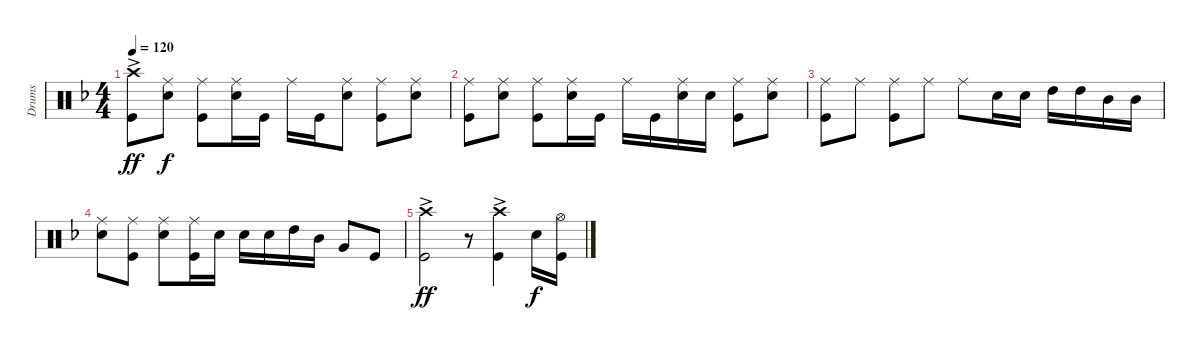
\track ("Drums" "Drums") {instrument percussion}
\staff {score}
\articulation defaults
\ts (4 4)
\tempo 120
\clef neutral
\ks f
("Crash high (hit)"{ac} "Kick (hit)").8{dy ff} ("Ride (middle)" "Snare (hit) 2").8{dy f} ("Ride (middle)" "Kick (hit)").8 ("Ride (middle)" "Snare (hit) 2").16 "Kick (hit)".16 "Ride (middle)".16 "Kick (hit)".16 ("Ride (middle)" "Snare (hit) 2").8 ("Ride (middle)" "Kick (hit)").8 ("Ride (middle)" "Snare (hit) 2").8 |
("Ride (middle)" "Kick (hit)").8 ("Ride (middle)" "Snare (hit) 2").8 ("Ride (middle)" "Kick (hit)").8 ("Ride (middle)" "Snare (hit) 2").16 "Kick (hit)".16 "Ride (middle)".16 "Kick (hit)".16 ("Ride (middle)" "Snare (hit) 2").16 "Snare (hit) 2".16 ("Ride (middle)" "Kick (hit)").8 ("Ride (middle)" "Snare (hit) 2").8 |
("Ride (middle)" "Kick (hit)").8 "Ride (middle)".8 ("Ride (middle)" "Kick (hit)").8 "Ride (middle)".8 "Ride (middle)".8 "Snare (hit) 2".16 "Snare (hit) 2".16 "High Tom (hit)".16 "High Tom (hit)".16 "Mid Tom (hit)".16 "Mid Tom (hit)".16 |
("Ride (middle)" "Snare (hit) 2").8 ("Ride (middle)" "Kick (hit)").8 ("Ride (middle)" "Snare (hit) 2").8 ("Ride (middle)" "Kick (hit)").16 "Snare (hit) 2".16 "Snare (hit) 2".16 "Snare (hit) 2".16 "High Tom (hit)".16 "Mid Tom (hit)".16 "Very Low Tom (hit)".8 "Kick (hit)".8 |
("Kick (hit)" "Crash high (hit)"{ac}).2{dy ff} r.8 ("Crash high (hit)"{ac} "Kick (hit)").4 "Snare (hit) 2".16{dy f} ("Hi-Hat (open)" "Kick (hit)").16
